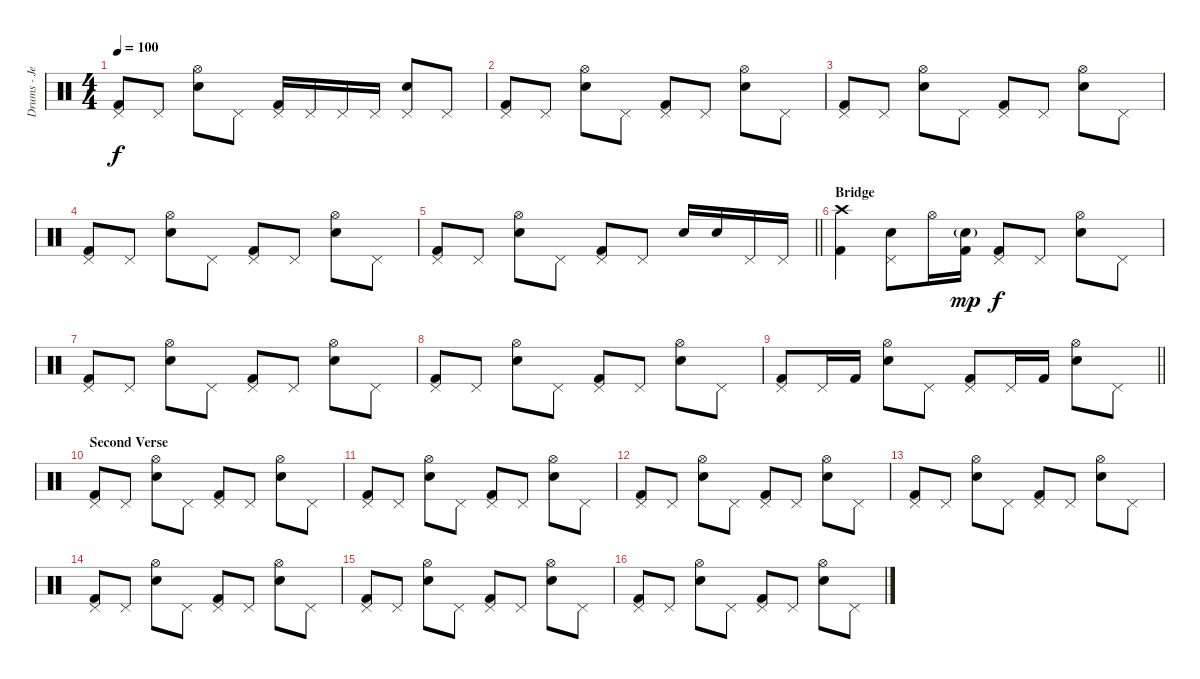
\track ("Drums - Jeremiah Green" "Drums - Je") {instrument percussion}
\staff {score}
\articulation defaults
\ts (4 4)
\tempo 100
\clef neutral
\ks c
("Pedal Hi-Hat (hit)" "Kick (hit) 2").8{dy f} "Pedal Hi-Hat (hit)".8 ("Hi-Hat (open)" "Electric Snare (hit)").8 "Pedal Hi-Hat (hit)".8 ("Pedal Hi-Hat (hit)" "Kick (hit) 2").16 "Pedal Hi-Hat (hit)".16 "Pedal Hi-Hat (hit)".16 "Pedal Hi-Hat (hit)".16 ("Pedal Hi-Hat (hit)" "Electric Snare (hit)").8 "Pedal Hi-Hat (hit)".8 |
("Pedal Hi-Hat (hit)" "Kick (hit) 2").8 "Pedal Hi-Hat (hit)".8 ("Hi-Hat (open)" "Electric Snare (hit)").8 "Pedal Hi-Hat (hit)".8 ("Pedal Hi-Hat (hit)" "Kick (hit) 2").8 "Pedal Hi-Hat (hit)".8 ("Hi-Hat (open)" "Electric Snare (hit)").8 "Pedal Hi-Hat (hit)".8 |
("Pedal Hi-Hat (hit)" "Kick (hit) 2").8 "Pedal Hi-Hat (hit)".8 ("Hi-Hat (open)" "Electric Snare (hit)").8 "Pedal Hi-Hat (hit)".8 ("Pedal Hi-Hat (hit)" "Kick (hit) 2").8 "Pedal Hi-Hat (hit)".8 ("Hi-Hat (open)" "Electric Snare (hit)").8 "Pedal Hi-Hat (hit)".8 |
("Pedal Hi-Hat (hit)" "Kick (hit) 2").8 "Pedal Hi-Hat (hit)".8 ("Hi-Hat (open)" "Electric Snare (hit)").8 "Pedal Hi-Hat (hit)".8 ("Pedal Hi-Hat (hit)" "Kick (hit) 2").8 "Pedal Hi-Hat (hit)".8 ("Hi-Hat (open)" "Electric Snare (hit)").8 "Pedal Hi-Hat (hit)".8 |
\barLineRight lightlight
("Pedal Hi-Hat (hit)" "Kick (hit) 2").8 "Pedal Hi-Hat (hit)".8 ("Hi-Hat (open)" "Electric Snare (hit)").8 "Pedal Hi-Hat (hit)".8 ("Pedal Hi-Hat (hit)" "Kick (hit) 2").8 "Pedal Hi-Hat (hit)".8 "Electric Snare (hit)".16 "Electric Snare (hit)".16 "Pedal Hi-Hat (hit)".16 "Pedal Hi-Hat (hit)".16 |
\section ("" "Bridge")
("Crash high (hit)" "Kick (hit) 2").4 ("Pedal Hi-Hat (hit)" "Electric Snare (hit)").8 "Hi-Hat (open)".16 ("Electric Snare (hit)"{g} "Kick (hit) 2").16{dy mp} ("Pedal Hi-Hat (hit)" "Kick (hit) 2").8{dy f} "Pedal Hi-Hat (hit)".8 ("Hi-Hat (open)" "Electric Snare (hit)").8 "Pedal Hi-Hat (hit)".8 |
("Pedal Hi-Hat (hit)" "Kick (hit) 2").8 "Pedal Hi-Hat (hit)".8 ("Hi-Hat (open)" "Electric Snare (hit)").8 "Pedal Hi-Hat (hit)".8 ("Pedal Hi-Hat (hit)" "Kick (hit) 2").8 "Pedal Hi-Hat (hit)".8 ("Hi-Hat (open)" "Electric Snare (hit)").8 "Pedal Hi-Hat (hit)".8 |
("Pedal Hi-Hat (hit)" "Kick (hit) 2").8 "Pedal Hi-Hat (hit)".8 ("Hi-Hat (open)" "Electric Snare (hit)").8 "Pedal Hi-Hat (hit)".8 ("Pedal Hi-Hat (hit)" "Kick (hit) 2").8 "Pedal Hi-Hat (hit)".8 ("Hi-Hat (open)" "Electric Snare (hit)").8 "Pedal Hi-Hat (hit)".8 |
\barLineRight lightlight
("Pedal Hi-Hat (hit)" "Kick (hit) 2").8 "Pedal Hi-Hat (hit)".16 "Kick (hit) 2".16 ("Hi-Hat (open)" "Electric Snare (hit)").8 "Pedal Hi-Hat (hit)".8 ("Pedal Hi-Hat (hit)" "Kick (hit) 2").8 "Pedal Hi-Hat (hit)".16 "Kick (hit) 2".16 ("Hi-Hat (open)" "Electric Snare (hit)").8 "Pedal Hi-Hat (hit)".8 |
\section ("" "Second Verse")
("Pedal Hi-Hat (hit)" "Kick (hit) 2").8 "Pedal Hi-Hat (hit)".8 ("Hi-Hat (open)" "Electric Snare (hit)").8 "Pedal Hi-Hat (hit)".8 ("Pedal Hi-Hat (hit)" "Kick (hit) 2").8 "Pedal Hi-Hat (hit)".8 ("Hi-Hat (open)" "Electric Snare (hit)").8 "Pedal Hi-Hat (hit)".8 |
("Pedal Hi-Hat (hit)" "Kick (hit) 2").8 "Pedal Hi-Hat (hit)".8 ("Hi-Hat (open)" "Electric Snare (hit)").8 "Pedal Hi-Hat (hit)".8 ("Pedal Hi-Hat (hit)" "Kick (hit) 2").8 "Pedal Hi-Hat (hit)".8 ("Hi-Hat (open)" "Electric Snare (hit)").8 "Pedal Hi-Hat (hit)".8 |
("Pedal Hi-Hat (hit)" "Kick (hit) 2").8 "Pedal Hi-Hat (hit)".8 ("Hi-Hat (open)" "Electric Snare (hit)").8 "Pedal Hi-Hat (hit)".8 ("Pedal Hi-Hat (hit)" "Kick (hit) 2").8 "Pedal Hi-Hat (hit)".8 ("Hi-Hat (open)" "Electric Snare (hit)").8 "Pedal Hi-Hat (hit)".8 |
("Pedal Hi-Hat (hit)" "Kick (hit) 2").8 "Pedal Hi-Hat (hit)".8 ("Hi-Hat (open)" "Electric Snare (hit)").8 "Pedal Hi-Hat (hit)".8 ("Pedal Hi-Hat (hit)" "Kick (hit) 2").8 "Pedal Hi-Hat (hit)".8 ("Hi-Hat (open)" "Electric Snare (hit)").8 "Pedal Hi-Hat (hit)".8 |
("Pedal Hi-Hat (hit)" "Kick (hit) 2").8 "Pedal Hi-Hat (hit)".8 ("Hi-Hat (open)" "Electric Snare (hit)").8 "Pedal Hi-Hat (hit)".8 ("Pedal Hi-Hat (hit)" "Kick (hit) 2").8 "Pedal Hi-Hat (hit)".8 ("Hi-Hat (open)" "Electric Snare (hit)").8 "Pedal Hi-Hat (hit)".8 |
("Pedal Hi-Hat (hit)" "Kick (hit) 2").8 "Pedal Hi-Hat (hit)".8 ("Hi-Hat (open)" "Electric Snare (hit)").8 "Pedal Hi-Hat (hit)".8 ("Pedal Hi-Hat (hit)" "Kick (hit) 2").8 "Pedal Hi-Hat (hit)".8 ("Hi-Hat (open)" "Electric Snare (hit)").8 "Pedal Hi-Hat (hit)".8 |
("Pedal Hi-Hat (hit)" "Kick (hit) 2").8 "Pedal Hi-Hat (hit)".8 ("Hi-Hat (open)" "Electric Snare (hit)").8 "Pedal Hi-Hat (hit)".8 ("Pedal Hi-Hat (hit)" "Kick (hit) 2").8 "Pedal Hi-Hat (hit)".8 ("Hi-Hat (open)" "Electric Snare (hit)").8 "Pedal Hi-Hat (hit)".8
